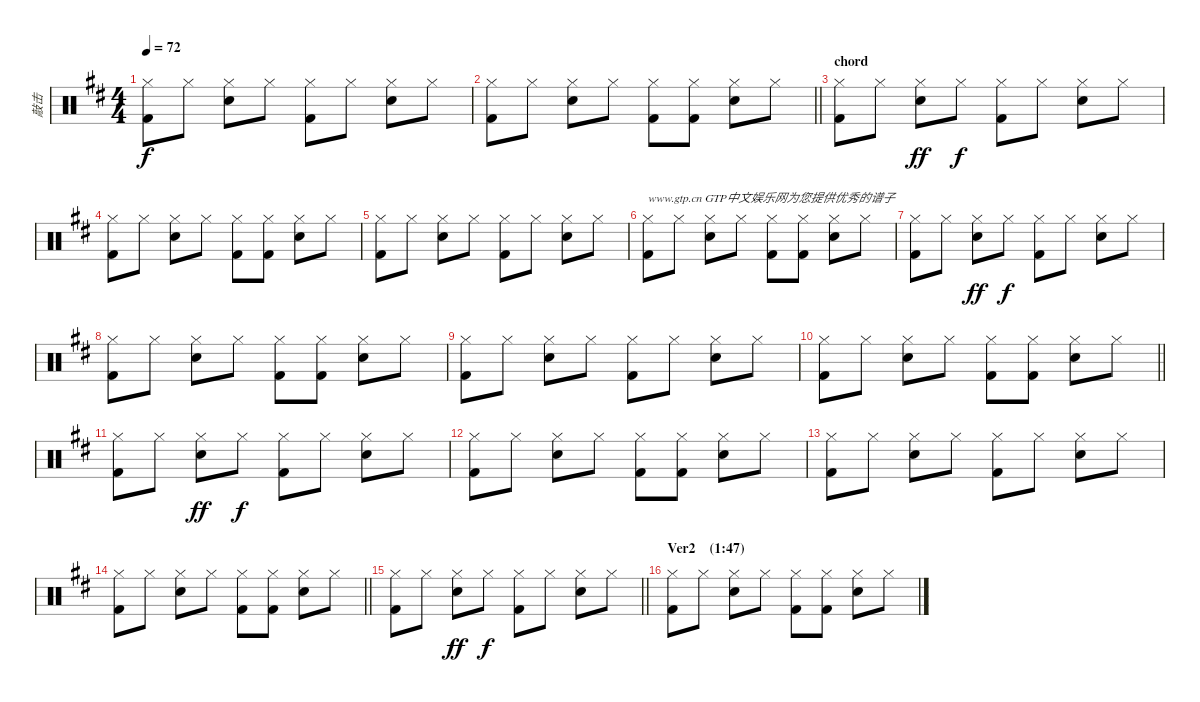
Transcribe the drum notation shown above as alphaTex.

\track ("敲击" "敲击") {instrument percussion}
\staff {score}
\articulation defaults
\ts (4 4)
\tempo 72
\clef neutral
\ks d
("Hi-Hat (closed)" "Kick (hit) 2").8{dy f} "Hi-Hat (closed)".8 ("Hi-Hat (closed)" "Snare (hit) 2").8 "Hi-Hat (closed)".8 ("Hi-Hat (closed)" "Kick (hit) 2").8 "Hi-Hat (closed)".8 ("Hi-Hat (closed)" "Snare (hit) 2").8 "Hi-Hat (closed)".8 |
\barLineRight lightlight
("Hi-Hat (closed)" "Kick (hit) 2").8 "Hi-Hat (closed)".8 ("Hi-Hat (closed)" "Snare (hit) 2").8 "Hi-Hat (closed)".8 ("Hi-Hat (closed)" "Kick (hit) 2").8 ("Hi-Hat (closed)" "Kick (hit) 2").8 ("Hi-Hat (closed)" "Snare (hit) 2").8 "Hi-Hat (closed)".8 |
\section ("" "chord")
("Hi-Hat (closed)" "Kick (hit) 2").8 "Hi-Hat (closed)".8 ("Hi-Hat (closed)" "Snare (hit) 2").8{dy ff} "Hi-Hat (closed)".8{dy f} ("Hi-Hat (closed)" "Kick (hit) 2").8 "Hi-Hat (closed)".8 ("Hi-Hat (closed)" "Snare (hit) 2").8 "Hi-Hat (closed)".8 |
("Hi-Hat (closed)" "Kick (hit) 2").8 "Hi-Hat (closed)".8 ("Hi-Hat (closed)" "Snare (hit) 2").8 "Hi-Hat (closed)".8 ("Hi-Hat (closed)" "Kick (hit) 2").8 ("Hi-Hat (closed)" "Kick (hit) 2").8 ("Hi-Hat (closed)" "Snare (hit) 2").8 "Hi-Hat (closed)".8 |
("Hi-Hat (closed)" "Kick (hit) 2").8 "Hi-Hat (closed)".8 ("Hi-Hat (closed)" "Snare (hit) 2").8 "Hi-Hat (closed)".8 ("Hi-Hat (closed)" "Kick (hit) 2").8 "Hi-Hat (closed)".8 ("Hi-Hat (closed)" "Snare (hit) 2").8 "Hi-Hat (closed)".8 |
("Hi-Hat (closed)" "Kick (hit) 2").8{txt "www.gtp.cn GTP中文娱乐网为您提供优秀的谱子"} "Hi-Hat (closed)".8 ("Hi-Hat (closed)" "Snare (hit) 2").8 "Hi-Hat (closed)".8 ("Hi-Hat (closed)" "Kick (hit) 2").8 ("Hi-Hat (closed)" "Kick (hit) 2").8 ("Hi-Hat (closed)" "Snare (hit) 2").8 "Hi-Hat (closed)".8 |
("Hi-Hat (closed)" "Kick (hit) 2").8 "Hi-Hat (closed)".8 ("Hi-Hat (closed)" "Snare (hit) 2").8{dy ff} "Hi-Hat (closed)".8{dy f} ("Hi-Hat (closed)" "Kick (hit) 2").8 "Hi-Hat (closed)".8 ("Hi-Hat (closed)" "Snare (hit) 2").8 "Hi-Hat (closed)".8 |
("Hi-Hat (closed)" "Kick (hit) 2").8 "Hi-Hat (closed)".8 ("Hi-Hat (closed)" "Snare (hit) 2").8 "Hi-Hat (closed)".8 ("Hi-Hat (closed)" "Kick (hit) 2").8 ("Hi-Hat (closed)" "Kick (hit) 2").8 ("Hi-Hat (closed)" "Snare (hit) 2").8 "Hi-Hat (closed)".8 |
("Hi-Hat (closed)" "Kick (hit) 2").8 "Hi-Hat (closed)".8 ("Hi-Hat (closed)" "Snare (hit) 2").8 "Hi-Hat (closed)".8 ("Hi-Hat (closed)" "Kick (hit) 2").8 "Hi-Hat (closed)".8 ("Hi-Hat (closed)" "Snare (hit) 2").8 "Hi-Hat (closed)".8 |
\barLineRight lightlight
("Hi-Hat (closed)" "Kick (hit) 2").8 "Hi-Hat (closed)".8 ("Hi-Hat (closed)" "Snare (hit) 2").8 "Hi-Hat (closed)".8 ("Hi-Hat (closed)" "Kick (hit) 2").8 ("Hi-Hat (closed)" "Kick (hit) 2").8 ("Hi-Hat (closed)" "Snare (hit) 2").8 "Hi-Hat (closed)".8 |
("Hi-Hat (closed)" "Kick (hit) 2").8 "Hi-Hat (closed)".8 ("Hi-Hat (closed)" "Snare (hit) 2").8{dy ff} "Hi-Hat (closed)".8{dy f} ("Hi-Hat (closed)" "Kick (hit) 2").8 "Hi-Hat (closed)".8 ("Hi-Hat (closed)" "Snare (hit) 2").8 "Hi-Hat (closed)".8 |
("Hi-Hat (closed)" "Kick (hit) 2").8 "Hi-Hat (closed)".8 ("Hi-Hat (closed)" "Snare (hit) 2").8 "Hi-Hat (closed)".8 ("Hi-Hat (closed)" "Kick (hit) 2").8 ("Hi-Hat (closed)" "Kick (hit) 2").8 ("Hi-Hat (closed)" "Snare (hit) 2").8 "Hi-Hat (closed)".8 |
("Hi-Hat (closed)" "Kick (hit) 2").8 "Hi-Hat (closed)".8 ("Hi-Hat (closed)" "Snare (hit) 2").8 "Hi-Hat (closed)".8 ("Hi-Hat (closed)" "Kick (hit) 2").8 "Hi-Hat (closed)".8 ("Hi-Hat (closed)" "Snare (hit) 2").8 "Hi-Hat (closed)".8 |
\barLineRight lightlight
("Hi-Hat (closed)" "Kick (hit) 2").8 "Hi-Hat (closed)".8 ("Hi-Hat (closed)" "Snare (hit) 2").8 "Hi-Hat (closed)".8 ("Hi-Hat (closed)" "Kick (hit) 2").8 ("Hi-Hat (closed)" "Kick (hit) 2").8 ("Hi-Hat (closed)" "Snare (hit) 2").8 "Hi-Hat (closed)".8 |
\barLineRight lightlight
("Hi-Hat (closed)" "Kick (hit) 2").8 "Hi-Hat (closed)".8 ("Hi-Hat (closed)" "Snare (hit) 2").8{dy ff} "Hi-Hat (closed)".8{dy f} ("Hi-Hat (closed)" "Kick (hit) 2").8 "Hi-Hat (closed)".8 ("Hi-Hat (closed)" "Snare (hit) 2").8 "Hi-Hat (closed)".8 |
\section ("" "Ver2    (1:47)")
("Hi-Hat (closed)" "Kick (hit) 2").8 "Hi-Hat (closed)".8 ("Hi-Hat (closed)" "Snare (hit) 2").8 "Hi-Hat (closed)".8 ("Hi-Hat (closed)" "Kick (hit) 2").8 ("Hi-Hat (closed)" "Kick (hit) 2").8 ("Hi-Hat (closed)" "Snare (hit) 2").8 "Hi-Hat (closed)".8
